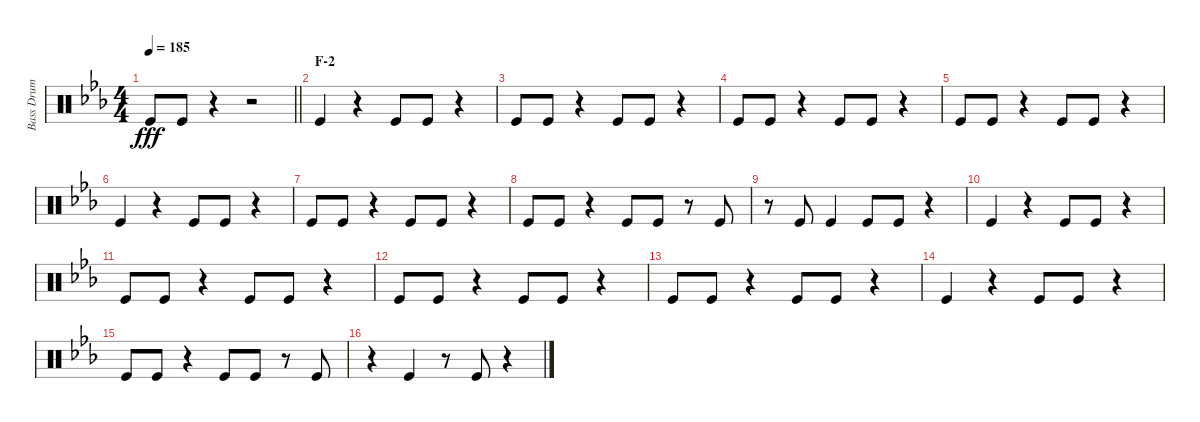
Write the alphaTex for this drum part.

\track ("Bass Drum" "Bass Drum") {instrument percussion}
\staff {score}
\articulation defaults
\ts (4 4)
\tempo 185
\clef neutral
\barLineRight lightlight
\ks eb "Kick (hit)".8{dy fff} "Kick (hit)".8
r.4 r.2 |
\section ("" "F-2")
"Kick (hit)".4 r.4 "Kick (hit)".8 "Kick (hit)".8 r.4 |
"Kick (hit)".8 "Kick (hit)".8 r.4 "Kick (hit)".8 "Kick (hit)".8 r.4 |
"Kick (hit)".8 "Kick (hit)".8 r.4 "Kick (hit)".8 "Kick (hit)".8 r.4 |
"Kick (hit)".8 "Kick (hit)".8 r.4 "Kick (hit)".8 "Kick (hit)".8 r.4 |
"Kick (hit)".4 r.4 "Kick (hit)".8 "Kick (hit)".8 r.4 |
"Kick (hit)".8 "Kick (hit)".8 r.4 "Kick (hit)".8 "Kick (hit)".8 r.4 |
"Kick (hit)".8 "Kick (hit)".8 r.4 "Kick (hit)".8 "Kick (hit)".8 r.8 "Kick (hit)".8 |
r.8 "Kick (hit)".8 "Kick (hit)".4 "Kick (hit)".8 "Kick (hit)".8 r.4 |
"Kick (hit)".4 r.4 "Kick (hit)".8 "Kick (hit)".8 r.4 |
"Kick (hit)".8 "Kick (hit)".8 r.4 "Kick (hit)".8 "Kick (hit)".8 r.4 |
"Kick (hit)".8 "Kick (hit)".8 r.4 "Kick (hit)".8 "Kick (hit)".8 r.4 |
"Kick (hit)".8 "Kick (hit)".8 r.4 "Kick (hit)".8 "Kick (hit)".8 r.4 |
"Kick (hit)".4 r.4 "Kick (hit)".8 "Kick (hit)".8 r.4 |
"Kick (hit)".8 "Kick (hit)".8 r.4 "Kick (hit)".8 "Kick (hit)".8 r.8 "Kick (hit)".8 |
r.4 "Kick (hit)".4 r.8 "Kick (hit)".8 r.4
